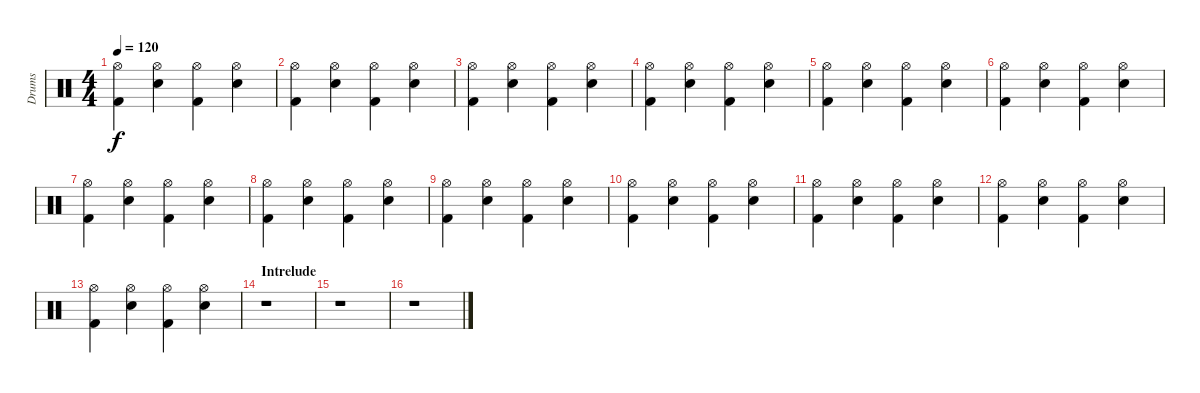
\track ("Drums" "Drums") {instrument percussion}
\staff {score}
\articulation defaults
\ts (4 4)
\tempo 120
\clef neutral
\ks c
("Hi-Hat (open)" "Kick (hit) 2").4{dy f} ("Hi-Hat (open)" "Electric Snare (hit)").4 ("Hi-Hat (open)" "Kick (hit) 2").4 ("Hi-Hat (open)" "Electric Snare (hit)").4 |
("Hi-Hat (open)" "Kick (hit) 2").4 ("Hi-Hat (open)" "Electric Snare (hit)").4 ("Hi-Hat (open)" "Kick (hit) 2").4 ("Hi-Hat (open)" "Electric Snare (hit)").4 |
("Hi-Hat (open)" "Kick (hit) 2").4 ("Hi-Hat (open)" "Electric Snare (hit)").4 ("Hi-Hat (open)" "Kick (hit) 2").4 ("Hi-Hat (open)" "Electric Snare (hit)").4 |
("Hi-Hat (open)" "Kick (hit) 2").4 ("Hi-Hat (open)" "Electric Snare (hit)").4 ("Hi-Hat (open)" "Kick (hit) 2").4 ("Hi-Hat (open)" "Electric Snare (hit)").4 |
("Hi-Hat (open)" "Kick (hit) 2").4 ("Hi-Hat (open)" "Electric Snare (hit)").4 ("Hi-Hat (open)" "Kick (hit) 2").4 ("Hi-Hat (open)" "Electric Snare (hit)").4 |
("Hi-Hat (open)" "Kick (hit) 2").4 ("Hi-Hat (open)" "Electric Snare (hit)").4 ("Hi-Hat (open)" "Kick (hit) 2").4 ("Hi-Hat (open)" "Electric Snare (hit)").4 |
("Hi-Hat (open)" "Kick (hit) 2").4 ("Hi-Hat (open)" "Electric Snare (hit)").4 ("Hi-Hat (open)" "Kick (hit) 2").4 ("Hi-Hat (open)" "Electric Snare (hit)").4 |
("Hi-Hat (open)" "Kick (hit) 2").4 ("Hi-Hat (open)" "Electric Snare (hit)").4 ("Hi-Hat (open)" "Kick (hit) 2").4 ("Hi-Hat (open)" "Electric Snare (hit)").4 |
("Hi-Hat (open)" "Kick (hit) 2").4 ("Hi-Hat (open)" "Electric Snare (hit)").4 ("Hi-Hat (open)" "Kick (hit) 2").4 ("Hi-Hat (open)" "Electric Snare (hit)").4 |
("Hi-Hat (open)" "Kick (hit) 2").4 ("Hi-Hat (open)" "Electric Snare (hit)").4 ("Hi-Hat (open)" "Kick (hit) 2").4 ("Hi-Hat (open)" "Electric Snare (hit)").4 |
("Hi-Hat (open)" "Kick (hit) 2").4 ("Hi-Hat (open)" "Electric Snare (hit)").4 ("Hi-Hat (open)" "Kick (hit) 2").4 ("Hi-Hat (open)" "Electric Snare (hit)").4 |
("Hi-Hat (open)" "Kick (hit) 2").4 ("Hi-Hat (open)" "Electric Snare (hit)").4 ("Hi-Hat (open)" "Kick (hit) 2").4 ("Hi-Hat (open)" "Electric Snare (hit)").4 |
("Hi-Hat (open)" "Kick (hit) 2").4 ("Hi-Hat (open)" "Electric Snare (hit)").4 ("Hi-Hat (open)" "Kick (hit) 2").4 ("Hi-Hat (open)" "Electric Snare (hit)").4 |
\section ("" "Intrelude")
r.1 |
r.1 |
r.1
